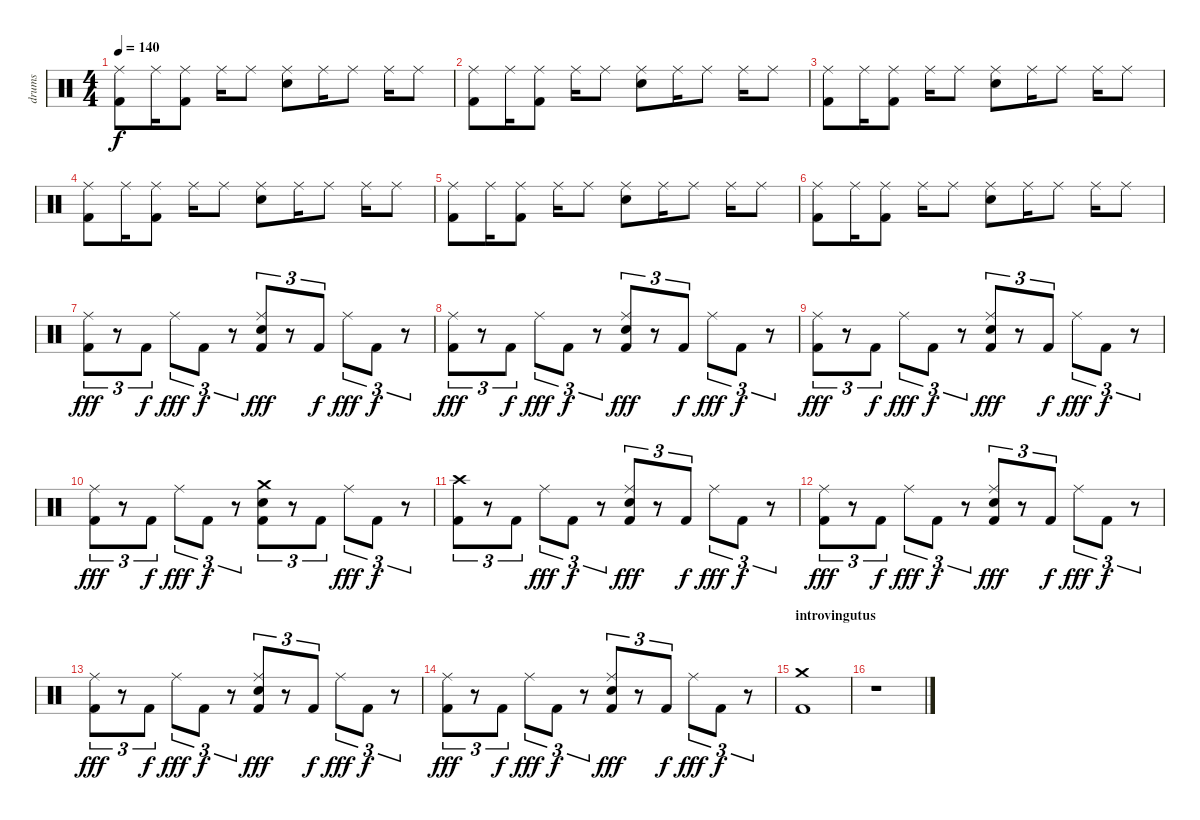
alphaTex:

\track ("drums" "drums") {instrument percussion}
\staff {score}
\articulation defaults
\ts (4 4)
\tempo 140
\clef neutral
\ks c
("Kick (hit) 2" "Ride (middle)").8{dy f} "Ride (middle)".16 ("Kick (hit) 2" "Ride (middle)").8 "Ride (middle)".16 "Ride (middle)".8 ("Ride (middle)" "Snare (hit) 2").8 "Ride (middle)".16 "Ride (middle)".8 "Ride (middle)".16 "Ride (middle)".8 |
("Kick (hit) 2" "Ride (middle)").8 "Ride (middle)".16 ("Kick (hit) 2" "Ride (middle)").8 "Ride (middle)".16 "Ride (middle)".8 ("Ride (middle)" "Snare (hit) 2").8 "Ride (middle)".16 "Ride (middle)".8 "Ride (middle)".16 "Ride (middle)".8 |
("Kick (hit) 2" "Ride (middle)").8 "Ride (middle)".16 ("Kick (hit) 2" "Ride (middle)").8 "Ride (middle)".16 "Ride (middle)".8 ("Ride (middle)" "Snare (hit) 2").8 "Ride (middle)".16 "Ride (middle)".8 "Ride (middle)".16 "Ride (middle)".8 |
("Kick (hit) 2" "Ride (middle)").8 "Ride (middle)".16 ("Kick (hit) 2" "Ride (middle)").8 "Ride (middle)".16 "Ride (middle)".8 ("Ride (middle)" "Snare (hit) 2").8 "Ride (middle)".16 "Ride (middle)".8 "Ride (middle)".16 "Ride (middle)".8 |
("Kick (hit) 2" "Ride (middle)").8 "Ride (middle)".16 ("Kick (hit) 2" "Ride (middle)").8 "Ride (middle)".16 "Ride (middle)".8 ("Ride (middle)" "Snare (hit) 2").8 "Ride (middle)".16 "Ride (middle)".8 "Ride (middle)".16 "Ride (middle)".8 |
("Kick (hit) 2" "Ride (middle)").8 "Ride (middle)".16 ("Kick (hit) 2" "Ride (middle)").8 "Ride (middle)".16 "Ride (middle)".8 ("Ride (middle)" "Snare (hit) 2").8 "Ride (middle)".16 "Ride (middle)".8 "Ride (middle)".16 "Ride (middle)".8 |
("Kick (hit) 2" "Ride (middle)").8{tu (3 2) dy fff} r.8{tu (3 2)} "Kick (hit) 2".8{tu (3 2) dy f} "Ride (middle)".8{tu (3 2) dy fff} "Kick (hit) 2".8{tu (3 2) dy f} r.8{tu (3 2)} ("Kick (hit) 2" "Ride (middle)" "Snare (hit) 2").8{tu (3 2) dy fff} r.8{tu (3 2)} "Kick (hit) 2".8{tu (3 2) dy f} "Ride (middle)".8{tu (3 2) dy fff} "Kick (hit) 2".8{tu (3 2) dy f} r.8{tu (3 2)} |
("Kick (hit) 2" "Ride (middle)").8{tu (3 2) dy fff} r.8{tu (3 2)} "Kick (hit) 2".8{tu (3 2) dy f} "Ride (middle)".8{tu (3 2) dy fff} "Kick (hit) 2".8{tu (3 2) dy f} r.8{tu (3 2)} ("Kick (hit) 2" "Ride (middle)" "Snare (hit) 2").8{tu (3 2) dy fff} r.8{tu (3 2)} "Kick (hit) 2".8{tu (3 2) dy f} "Ride (middle)".8{tu (3 2) dy fff} "Kick (hit) 2".8{tu (3 2) dy f} r.8{tu (3 2)} |
("Kick (hit) 2" "Ride (middle)").8{tu (3 2) dy fff} r.8{tu (3 2)} "Kick (hit) 2".8{tu (3 2) dy f} "Ride (middle)".8{tu (3 2) dy fff} "Kick (hit) 2".8{tu (3 2) dy f} r.8{tu (3 2)} ("Kick (hit) 2" "Ride (middle)" "Snare (hit) 2").8{tu (3 2) dy fff} r.8{tu (3 2)} "Kick (hit) 2".8{tu (3 2) dy f} "Ride (middle)".8{tu (3 2) dy fff} "Kick (hit) 2".8{tu (3 2) dy f} r.8{tu (3 2)} |
("Kick (hit) 2" "Ride (middle)").8{tu (3 2) dy fff} r.8{tu (3 2)} "Kick (hit) 2".8{tu (3 2) dy f} "Ride (middle)".8{tu (3 2) dy fff} "Kick (hit) 2".8{tu (3 2) dy f} r.8{tu (3 2)} ("Kick (hit) 2" "Crash medium (hit)" "Snare (hit) 2").8{tu (3 2)} r.8{tu (3 2)} "Kick (hit) 2".8{tu (3 2)} "Ride (middle)".8{tu (3 2) dy fff} "Kick (hit) 2".8{tu (3 2) dy f} r.8{tu (3 2)} |
("Kick (hit) 2" "Crash high (hit)").8{tu (3 2)} r.8{tu (3 2)} "Kick (hit) 2".8{tu (3 2)} "Ride (middle)".8{tu (3 2) dy fff} "Kick (hit) 2".8{tu (3 2) dy f} r.8{tu (3 2)} ("Kick (hit) 2" "Ride (middle)" "Snare (hit) 2").8{tu (3 2) dy fff} r.8{tu (3 2)} "Kick (hit) 2".8{tu (3 2) dy f} "Ride (middle)".8{tu (3 2) dy fff} "Kick (hit) 2".8{tu (3 2) dy f} r.8{tu (3 2)} |
("Kick (hit) 2" "Ride (middle)").8{tu (3 2) dy fff} r.8{tu (3 2)} "Kick (hit) 2".8{tu (3 2) dy f} "Ride (middle)".8{tu (3 2) dy fff} "Kick (hit) 2".8{tu (3 2) dy f} r.8{tu (3 2)} ("Kick (hit) 2" "Ride (middle)" "Snare (hit) 2").8{tu (3 2) dy fff} r.8{tu (3 2)} "Kick (hit) 2".8{tu (3 2) dy f} "Ride (middle)".8{tu (3 2) dy fff} "Kick (hit) 2".8{tu (3 2) dy f} r.8{tu (3 2)} |
("Kick (hit) 2" "Ride (middle)").8{tu (3 2) dy fff} r.8{tu (3 2)} "Kick (hit) 2".8{tu (3 2) dy f} "Ride (middle)".8{tu (3 2) dy fff} "Kick (hit) 2".8{tu (3 2) dy f} r.8{tu (3 2)} ("Kick (hit) 2" "Ride (middle)" "Snare (hit) 2").8{tu (3 2) dy fff} r.8{tu (3 2)} "Kick (hit) 2".8{tu (3 2) dy f} "Ride (middle)".8{tu (3 2) dy fff} "Kick (hit) 2".8{tu (3 2) dy f} r.8{tu (3 2)} |
("Kick (hit) 2" "Ride (middle)").8{tu (3 2) dy fff} r.8{tu (3 2)} "Kick (hit) 2".8{tu (3 2) dy f} "Ride (middle)".8{tu (3 2) dy fff} "Kick (hit) 2".8{tu (3 2) dy f} r.8{tu (3 2)} ("Kick (hit) 2" "Ride (middle)" "Snare (hit) 2").8{tu (3 2) dy fff} r.8{tu (3 2)} "Kick (hit) 2".8{tu (3 2) dy f} "Ride (middle)".8{tu (3 2) dy fff} "Kick (hit) 2".8{tu (3 2) dy f} r.8{tu (3 2)} |
\section ("" "introvingutus")
("Kick (hit) 2" "Crash medium (hit)").1 |
r.1
